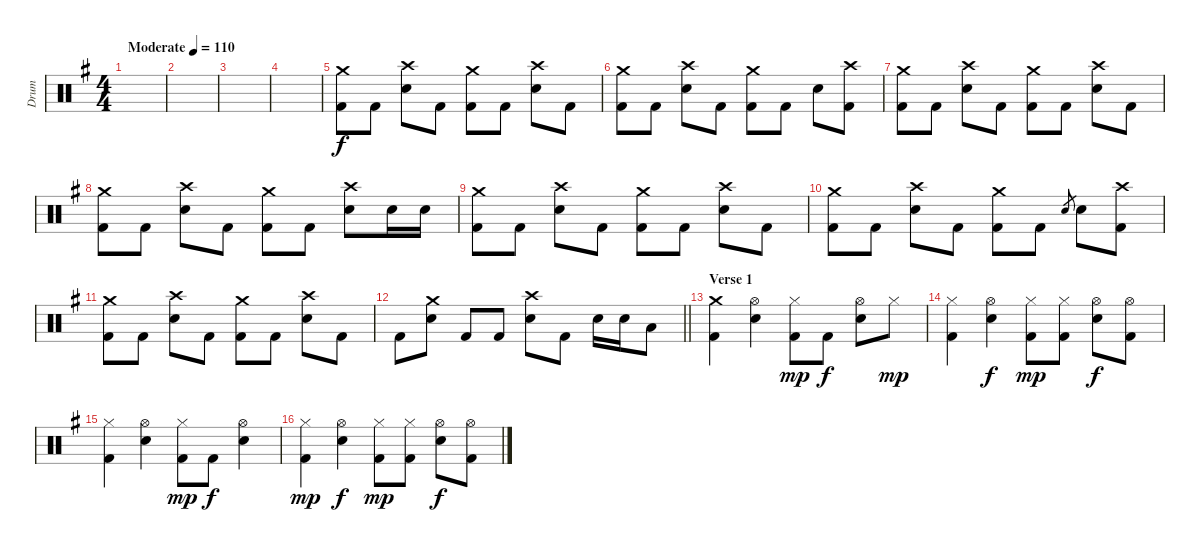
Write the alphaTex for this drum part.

\track ("Drum" "Drum") {instrument percussion}
\staff {score}
\articulation defaults
\ts (4 4)
\tempo (110 "Moderate")
\clef neutral
\ks g
|
|
|
|
("Crash medium (hit)" "Kick (hit) 2").8 "Kick (hit) 2".8 ("Crash high (hit)" "Electric Snare (hit)").8 "Kick (hit) 2".8 ("Crash medium (hit)" "Kick (hit) 2").8 "Kick (hit) 2".8 ("Crash high (hit)" "Electric Snare (hit)").8 "Kick (hit) 2".8 |
("Crash medium (hit)" "Kick (hit) 2").8 "Kick (hit) 2".8 ("Crash high (hit)" "Electric Snare (hit)").8 "Kick (hit) 2".8 ("Crash medium (hit)" "Kick (hit) 2").8 "Kick (hit) 2".8 "Electric Snare (hit)".8 ("Crash high (hit)" "Kick (hit) 2").8 |
("Crash medium (hit)" "Kick (hit) 2").8 "Kick (hit) 2".8 ("Crash high (hit)" "Electric Snare (hit)").8 "Kick (hit) 2".8 ("Crash medium (hit)" "Kick (hit) 2").8 "Kick (hit) 2".8 ("Crash high (hit)" "Electric Snare (hit)").8 "Kick (hit) 2".8 |
("Crash medium (hit)" "Kick (hit) 2").8 "Kick (hit) 2".8 ("Crash high (hit)" "Electric Snare (hit)").8 "Kick (hit) 2".8 ("Crash medium (hit)" "Kick (hit) 2").8 "Kick (hit) 2".8 ("Crash high (hit)" "Electric Snare (hit)").8 "Electric Snare (hit)".16 "Electric Snare (hit)".16 |
("Crash medium (hit)" "Kick (hit) 2").8 "Kick (hit) 2".8 ("Crash high (hit)" "Electric Snare (hit)").8 "Kick (hit) 2".8 ("Crash medium (hit)" "Kick (hit) 2").8 "Kick (hit) 2".8 ("Crash high (hit)" "Electric Snare (hit)").8 "Kick (hit) 2".8 |
("Crash medium (hit)" "Kick (hit) 2").8 "Kick (hit) 2".8 ("Crash high (hit)" "Electric Snare (hit)").8 "Kick (hit) 2".8 ("Crash medium (hit)" "Kick (hit) 2").8 "Kick (hit) 2".8 "Electric Snare (hit)".8{gr} "Electric Snare (hit)".8 ("Crash high (hit)" "Kick (hit) 2").8 |
("Crash medium (hit)" "Kick (hit) 2").8 "Kick (hit) 2".8 ("Crash high (hit)" "Electric Snare (hit)").8 "Kick (hit) 2".8 ("Crash medium (hit)" "Kick (hit) 2").8 "Kick (hit) 2".8 ("Crash high (hit)" "Electric Snare (hit)").8 "Kick (hit) 2".8 |
\barLineRight lightlight "Kick (hit) 2".8
("Crash medium (hit)" "Electric Snare (hit)").8 "Kick (hit) 2".8 "Kick (hit) 2".8 ("Crash high (hit)" "Electric Snare (hit)").8 "Kick (hit) 2".8 "Electric Snare (hit)".16 "Electric Snare (hit)".16 "Low Tom (hit)".8 |
\section ("" "Verse 1")
("Crash medium (hit)" "Kick (hit) 2").4 ("Hi-Hat (open)" "Electric Snare (hit)").4 ("Hi-Hat (closed)" "Kick (hit) 2").8{dy mp} "Kick (hit) 2".8{dy f} ("Hi-Hat (open)" "Electric Snare (hit)").8 "Hi-Hat (closed)".8{dy mp} |
("Hi-Hat (closed)" "Kick (hit) 2").4 ("Hi-Hat (open)" "Electric Snare (hit)").4{dy f} ("Hi-Hat (closed)" "Kick (hit) 2").8{dy mp} ("Hi-Hat (closed)" "Kick (hit) 2").8 ("Hi-Hat (open)" "Electric Snare (hit)").8{dy f} ("Hi-Hat (open)" "Kick (hit) 2").8 |
("Hi-Hat (closed)" "Kick (hit) 2").4 ("Hi-Hat (open)" "Electric Snare (hit)").4 ("Hi-Hat (closed)" "Kick (hit) 2").8{dy mp} "Kick (hit) 2".8{dy f} ("Hi-Hat (open)" "Electric Snare (hit)").4 |
("Hi-Hat (closed)" "Kick (hit) 2").4{dy mp} ("Hi-Hat (open)" "Electric Snare (hit)").4{dy f} ("Hi-Hat (closed)" "Kick (hit) 2").8{dy mp} ("Hi-Hat (closed)" "Kick (hit) 2").8 ("Hi-Hat (open)" "Electric Snare (hit)").8{dy f} ("Hi-Hat (open)" "Kick (hit) 2").8
